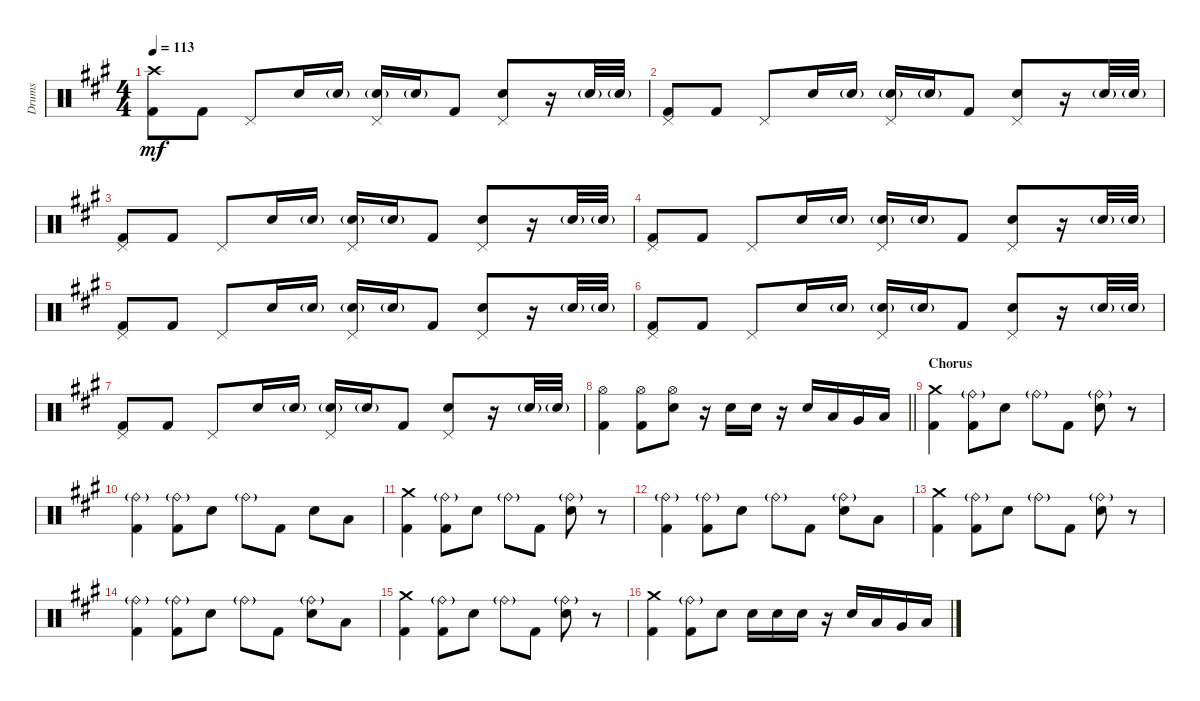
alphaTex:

\track ("Drums" "Drums") {instrument percussion}
\staff {score}
\articulation defaults
\ts (4 4)
\tempo 113
\clef neutral
\ks f#minor
("Crash high (hit)" "Kick (hit) 2").8{dy mf} "Kick (hit) 2".8 "Pedal Hi-Hat (hit)".8 "Snare (hit) 2".16 "Snare (hit) 2"{g}.16 ("Pedal Hi-Hat (hit)" "Snare (hit) 2"{g}).16 "Snare (hit) 2"{g}.16 "Kick (hit) 2".8 ("Pedal Hi-Hat (hit)" "Snare (hit) 2").8 r.16 "Snare (hit) 2"{g}.32 "Snare (hit) 2"{g}.32 |
("Pedal Hi-Hat (hit)" "Kick (hit) 2").8 "Kick (hit) 2".8 "Pedal Hi-Hat (hit)".8 "Snare (hit) 2".16 "Snare (hit) 2"{g}.16 ("Pedal Hi-Hat (hit)" "Snare (hit) 2"{g}).16 "Snare (hit) 2"{g}.16 "Kick (hit) 2".8 ("Pedal Hi-Hat (hit)" "Snare (hit) 2").8 r.16 "Snare (hit) 2"{g}.32 "Snare (hit) 2"{g}.32 |
("Pedal Hi-Hat (hit)" "Kick (hit) 2").8 "Kick (hit) 2".8 "Pedal Hi-Hat (hit)".8 "Snare (hit) 2".16 "Snare (hit) 2"{g}.16 ("Pedal Hi-Hat (hit)" "Snare (hit) 2"{g}).16 "Snare (hit) 2"{g}.16 "Kick (hit) 2".8 ("Pedal Hi-Hat (hit)" "Snare (hit) 2").8 r.16 "Snare (hit) 2"{g}.32 "Snare (hit) 2"{g}.32 |
("Pedal Hi-Hat (hit)" "Kick (hit) 2").8 "Kick (hit) 2".8 "Pedal Hi-Hat (hit)".8 "Snare (hit) 2".16 "Snare (hit) 2"{g}.16 ("Pedal Hi-Hat (hit)" "Snare (hit) 2"{g}).16 "Snare (hit) 2"{g}.16 "Kick (hit) 2".8 ("Pedal Hi-Hat (hit)" "Snare (hit) 2").8 r.16 "Snare (hit) 2"{g}.32 "Snare (hit) 2"{g}.32 |
("Pedal Hi-Hat (hit)" "Kick (hit) 2").8 "Kick (hit) 2".8 "Pedal Hi-Hat (hit)".8 "Snare (hit) 2".16 "Snare (hit) 2"{g}.16 ("Pedal Hi-Hat (hit)" "Snare (hit) 2"{g}).16 "Snare (hit) 2"{g}.16 "Kick (hit) 2".8 ("Pedal Hi-Hat (hit)" "Snare (hit) 2").8 r.16 "Snare (hit) 2"{g}.32 "Snare (hit) 2"{g}.32 |
("Pedal Hi-Hat (hit)" "Kick (hit) 2").8 "Kick (hit) 2".8 "Pedal Hi-Hat (hit)".8 "Snare (hit) 2".16 "Snare (hit) 2"{g}.16 ("Pedal Hi-Hat (hit)" "Snare (hit) 2"{g}).16 "Snare (hit) 2"{g}.16 "Kick (hit) 2".8 ("Pedal Hi-Hat (hit)" "Snare (hit) 2").8 r.16 "Snare (hit) 2"{g}.32 "Snare (hit) 2"{g}.32 |
("Pedal Hi-Hat (hit)" "Kick (hit) 2").8 "Kick (hit) 2".8 "Pedal Hi-Hat (hit)".8 "Snare (hit) 2".16 "Snare (hit) 2"{g}.16 ("Pedal Hi-Hat (hit)" "Snare (hit) 2"{g}).16 "Snare (hit) 2"{g}.16 "Kick (hit) 2".8 ("Pedal Hi-Hat (hit)" "Snare (hit) 2").8 r.16 "Snare (hit) 2"{g}.32 "Snare (hit) 2"{g}.32 |
\barLineRight lightlight
("Hi-Hat (open)" "Kick (hit) 2").4 ("Hi-Hat (open)" "Kick (hit) 2").8 ("Hi-Hat (open)" "Snare (hit) 2").8 r.16 "Snare (hit) 2".16 "Snare (hit) 2".16 r.16 "Snare (hit) 2".16 "Low Tom (hit)".16 "Very Low Tom (hit)".16 "Low Floor Tom (hit)".16 |
\section ("" "Chorus")
("Crash medium (hit)" "Kick (hit) 2").4 ("Ride (bell)"{g} "Kick (hit) 2").8 "Snare (hit) 2".8 "Ride (bell)"{g}.8 "Kick (hit) 2".8 ("Ride (bell)"{g} "Snare (hit) 2").8 r.8 |
("Ride (bell)"{g} "Kick (hit) 2").4 ("Ride (bell)"{g} "Kick (hit) 2").8 "Snare (hit) 2".8 "Ride (bell)"{g}.8 "Kick (hit) 2".8 "Snare (hit) 2".8 "Low Floor Tom (hit)".8 |
("Crash medium (hit)" "Kick (hit) 2").4 ("Ride (bell)"{g} "Kick (hit) 2").8 "Snare (hit) 2".8 "Ride (bell)"{g}.8 "Kick (hit) 2".8 ("Ride (bell)"{g} "Snare (hit) 2").8 r.8 |
("Ride (bell)"{g} "Kick (hit) 2").4 ("Ride (bell)"{g} "Kick (hit) 2").8 "Snare (hit) 2".8 "Ride (bell)"{g}.8 "Kick (hit) 2".8 ("Ride (bell)"{g} "Snare (hit) 2").8 "Low Floor Tom (hit)".8 |
("Crash medium (hit)" "Kick (hit) 2").4 ("Ride (bell)"{g} "Kick (hit) 2").8 "Snare (hit) 2".8 "Ride (bell)"{g}.8 "Kick (hit) 2".8 ("Ride (bell)"{g} "Snare (hit) 2").8 r.8 |
("Ride (bell)"{g} "Kick (hit) 2").4 ("Ride (bell)"{g} "Kick (hit) 2").8 "Snare (hit) 2".8 "Ride (bell)"{g}.8 "Kick (hit) 2".8 ("Ride (bell)"{g} "Snare (hit) 2").8 "Low Floor Tom (hit)".8 |
("Crash medium (hit)" "Kick (hit) 2").4 ("Ride (bell)"{g} "Kick (hit) 2").8 "Snare (hit) 2".8 "Ride (bell)"{g}.8 "Kick (hit) 2".8 ("Ride (bell)"{g} "Snare (hit) 2").8 r.8 |
("Crash medium (hit)" "Kick (hit) 2").4 ("Ride (bell)"{g} "Kick (hit) 2").8 "Snare (hit) 2".8 "Snare (hit) 2".16 "Snare (hit) 2".16 "Snare (hit) 2".16 r.16 "Snare (hit) 2".16 "Low Tom (hit)".16 "Very Low Tom (hit)".16 "Low Floor Tom (hit)".16
